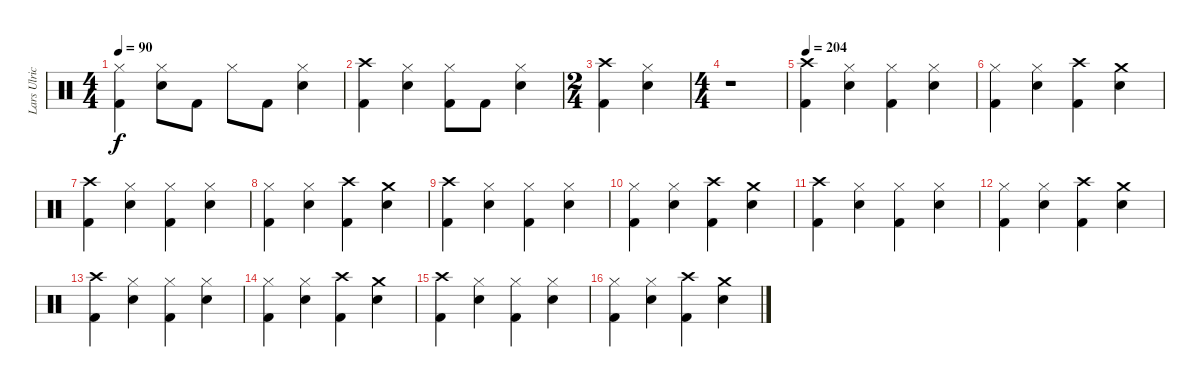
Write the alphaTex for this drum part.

\track ("Lars Ulrich (Drums)" "Lars Ulric") {instrument percussion}
\staff {score}
\articulation defaults
\ts (4 4)
\tempo 90
\clef neutral
\ks c
("Hi-Hat (closed)" "Kick (hit) 2").4{dy f} ("Hi-Hat (closed)" "Electric Snare (hit)").8 "Kick (hit) 2".8 "Hi-Hat (closed)".8 "Kick (hit) 2".8 ("Hi-Hat (closed)" "Electric Snare (hit)").4 |
("Crash high (hit)" "Kick (hit) 2").4 ("Hi-Hat (closed)" "Electric Snare (hit)").4 ("Hi-Hat (closed)" "Kick (hit) 2").8 "Kick (hit) 2".8 ("Hi-Hat (closed)" "Electric Snare (hit)").4 |
\ts (2 4)
("Crash high (hit)" "Kick (hit) 2").4 ("Hi-Hat (closed)" "Electric Snare (hit)").4 |
\ts (4 4)
r.1 |
\tempo 204
("Crash high (hit)" "Kick (hit) 2").4 ("Hi-Hat (closed)" "Electric Snare (hit)").4 ("Hi-Hat (closed)" "Kick (hit) 2").4 ("Hi-Hat (closed)" "Electric Snare (hit)").4 |
("Hi-Hat (closed)" "Kick (hit) 2").4 ("Hi-Hat (closed)" "Electric Snare (hit)").4 ("Crash high (hit)" "Kick (hit) 2").4 ("Crash medium (hit)" "Electric Snare (hit)").4 |
("Crash high (hit)" "Kick (hit) 2").4 ("Hi-Hat (closed)" "Electric Snare (hit)").4 ("Hi-Hat (closed)" "Kick (hit) 2").4 ("Hi-Hat (closed)" "Electric Snare (hit)").4 |
("Hi-Hat (closed)" "Kick (hit) 2").4 ("Hi-Hat (closed)" "Electric Snare (hit)").4 ("Crash high (hit)" "Kick (hit) 2").4 ("Crash medium (hit)" "Electric Snare (hit)").4 |
("Crash high (hit)" "Kick (hit) 2").4 ("Hi-Hat (closed)" "Electric Snare (hit)").4 ("Hi-Hat (closed)" "Kick (hit) 2").4 ("Hi-Hat (closed)" "Electric Snare (hit)").4 |
("Hi-Hat (closed)" "Kick (hit) 2").4 ("Hi-Hat (closed)" "Electric Snare (hit)").4 ("Crash high (hit)" "Kick (hit) 2").4 ("Crash medium (hit)" "Electric Snare (hit)").4 |
("Crash high (hit)" "Kick (hit) 2").4 ("Hi-Hat (closed)" "Electric Snare (hit)").4 ("Hi-Hat (closed)" "Kick (hit) 2").4 ("Hi-Hat (closed)" "Electric Snare (hit)").4 |
("Hi-Hat (closed)" "Kick (hit) 2").4 ("Hi-Hat (closed)" "Electric Snare (hit)").4 ("Crash high (hit)" "Kick (hit) 2").4 ("Crash medium (hit)" "Electric Snare (hit)").4 |
("Crash high (hit)" "Kick (hit) 2").4 ("Hi-Hat (closed)" "Electric Snare (hit)").4 ("Hi-Hat (closed)" "Kick (hit) 2").4 ("Hi-Hat (closed)" "Electric Snare (hit)").4 |
("Hi-Hat (closed)" "Kick (hit) 2").4 ("Hi-Hat (closed)" "Electric Snare (hit)").4 ("Crash high (hit)" "Kick (hit) 2").4 ("Crash medium (hit)" "Electric Snare (hit)").4 |
("Crash high (hit)" "Kick (hit) 2").4 ("Hi-Hat (closed)" "Electric Snare (hit)").4 ("Hi-Hat (closed)" "Kick (hit) 2").4 ("Hi-Hat (closed)" "Electric Snare (hit)").4 |
("Hi-Hat (closed)" "Kick (hit) 2").4 ("Hi-Hat (closed)" "Electric Snare (hit)").4 ("Crash high (hit)" "Kick (hit) 2").4 ("Crash medium (hit)" "Electric Snare (hit)").4
